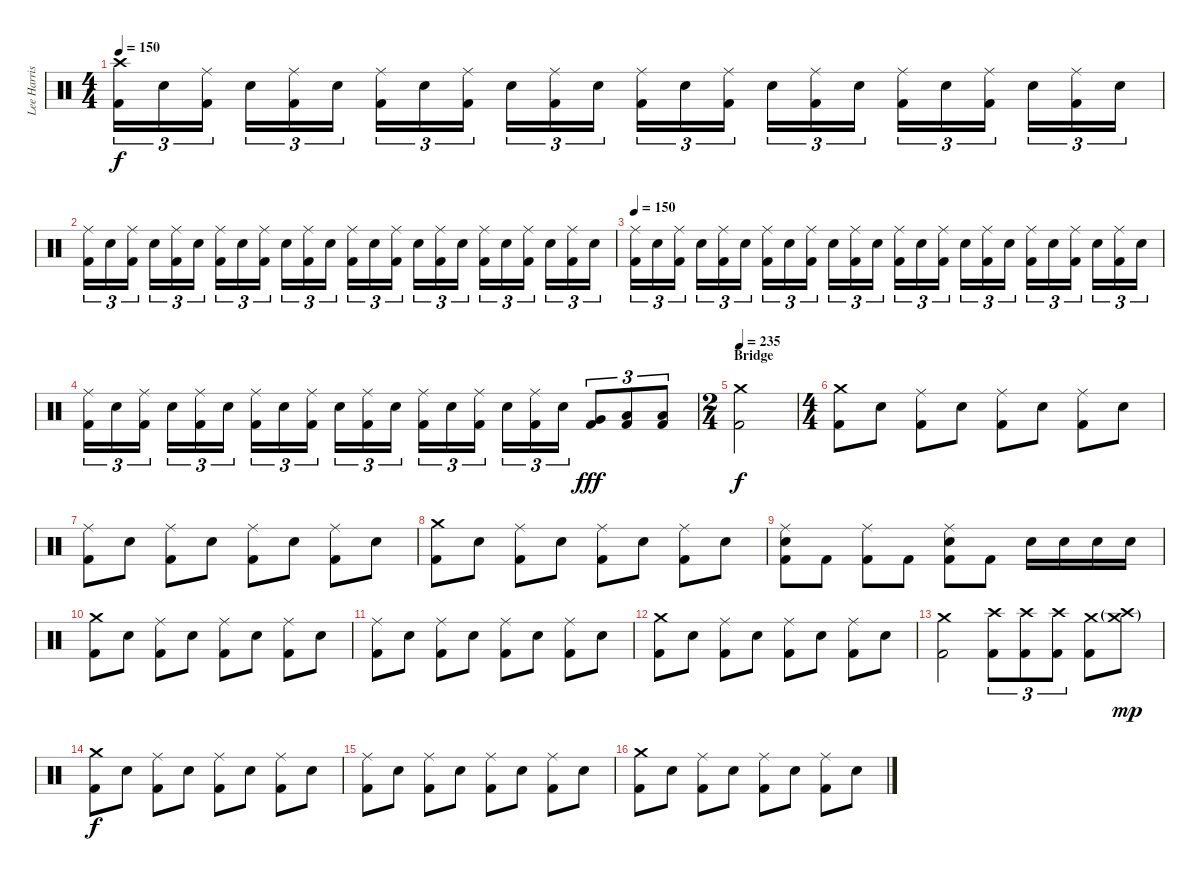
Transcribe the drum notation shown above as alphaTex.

\track ("Lee Harrison" "Lee Harris") {instrument percussion}
\staff {score}
\articulation defaults
\ts (4 4)
\tempo 150
\clef neutral
\ks c
("Crash high (hit)" "Kick (hit) 2").16{tu (3 2) dy f} "Electric Snare (hit)".16{tu (3 2)} ("Ride (middle)" "Kick (hit) 2").16{tu (3 2)} "Electric Snare (hit)".16{tu (3 2)} ("Ride (middle)" "Kick (hit) 2").16{tu (3 2)} "Electric Snare (hit)".16{tu (3 2)} ("Ride (middle)" "Kick (hit) 2").16{tu (3 2)} "Electric Snare (hit)".16{tu (3 2)} ("Ride (middle)" "Kick (hit) 2").16{tu (3 2)} "Electric Snare (hit)".16{tu (3 2)} ("Ride (middle)" "Kick (hit) 2").16{tu (3 2)} "Electric Snare (hit)".16{tu (3 2)} ("Ride (middle)" "Kick (hit) 2").16{tu (3 2)} "Electric Snare (hit)".16{tu (3 2)} ("Ride (middle)" "Kick (hit) 2").16{tu (3 2)} "Electric Snare (hit)".16{tu (3 2)} ("Ride (middle)" "Kick (hit) 2").16{tu (3 2)} "Electric Snare (hit)".16{tu (3 2)} ("Ride (middle)" "Kick (hit) 2").16{tu (3 2)} "Electric Snare (hit)".16{tu (3 2)} ("Ride (middle)" "Kick (hit) 2").16{tu (3 2)} "Electric Snare (hit)".16{tu (3 2)} ("Ride (middle)" "Kick (hit) 2").16{tu (3 2)} "Electric Snare (hit)".16{tu (3 2)} |
("Ride (middle)" "Kick (hit) 2").16{tu (3 2)} "Electric Snare (hit)".16{tu (3 2)} ("Ride (middle)" "Kick (hit) 2").16{tu (3 2)} "Electric Snare (hit)".16{tu (3 2)} ("Ride (middle)" "Kick (hit) 2").16{tu (3 2)} "Electric Snare (hit)".16{tu (3 2)} ("Ride (middle)" "Kick (hit) 2").16{tu (3 2)} "Electric Snare (hit)".16{tu (3 2)} ("Ride (middle)" "Kick (hit) 2").16{tu (3 2)} "Electric Snare (hit)".16{tu (3 2)} ("Ride (middle)" "Kick (hit) 2").16{tu (3 2)} "Electric Snare (hit)".16{tu (3 2)} ("Ride (middle)" "Kick (hit) 2").16{tu (3 2)} "Electric Snare (hit)".16{tu (3 2)} ("Ride (middle)" "Kick (hit) 2").16{tu (3 2)} "Electric Snare (hit)".16{tu (3 2)} ("Ride (middle)" "Kick (hit) 2").16{tu (3 2)} "Electric Snare (hit)".16{tu (3 2)} ("Ride (middle)" "Kick (hit) 2").16{tu (3 2)} "Electric Snare (hit)".16{tu (3 2)} ("Ride (middle)" "Kick (hit) 2").16{tu (3 2)} "Electric Snare (hit)".16{tu (3 2)} ("Ride (middle)" "Kick (hit) 2").16{tu (3 2)} "Electric Snare (hit)".16{tu (3 2)} |
\tempo 150
("Ride (middle)" "Kick (hit) 2").16{tu (3 2)} "Electric Snare (hit)".16{tu (3 2)} ("Ride (middle)" "Kick (hit) 2").16{tu (3 2)} "Electric Snare (hit)".16{tu (3 2)} ("Ride (middle)" "Kick (hit) 2").16{tu (3 2)} "Electric Snare (hit)".16{tu (3 2)} ("Ride (middle)" "Kick (hit) 2").16{tu (3 2)} "Electric Snare (hit)".16{tu (3 2)} ("Ride (middle)" "Kick (hit) 2").16{tu (3 2)} "Electric Snare (hit)".16{tu (3 2)} ("Ride (middle)" "Kick (hit) 2").16{tu (3 2)} "Electric Snare (hit)".16{tu (3 2)} ("Ride (middle)" "Kick (hit) 2").16{tu (3 2)} "Electric Snare (hit)".16{tu (3 2)} ("Ride (middle)" "Kick (hit) 2").16{tu (3 2)} "Electric Snare (hit)".16{tu (3 2)} ("Ride (middle)" "Kick (hit) 2").16{tu (3 2)} "Electric Snare (hit)".16{tu (3 2)} ("Ride (middle)" "Kick (hit) 2").16{tu (3 2)} "Electric Snare (hit)".16{tu (3 2)} ("Ride (middle)" "Kick (hit) 2").16{tu (3 2)} "Electric Snare (hit)".16{tu (3 2)} ("Ride (middle)" "Kick (hit) 2").16{tu (3 2)} "Electric Snare (hit)".16{tu (3 2)} |
("Ride (middle)" "Kick (hit) 2").16{tu (3 2)} "Electric Snare (hit)".16{tu (3 2)} ("Ride (middle)" "Kick (hit) 2").16{tu (3 2)} "Electric Snare (hit)".16{tu (3 2)} ("Ride (middle)" "Kick (hit) 2").16{tu (3 2)} "Electric Snare (hit)".16{tu (3 2)} ("Ride (middle)" "Kick (hit) 2").16{tu (3 2)} "Electric Snare (hit)".16{tu (3 2)} ("Ride (middle)" "Kick (hit) 2").16{tu (3 2)} "Electric Snare (hit)".16{tu (3 2)} ("Ride (middle)" "Kick (hit) 2").16{tu (3 2)} "Electric Snare (hit)".16{tu (3 2)} ("Ride (middle)" "Kick (hit) 2").16{tu (3 2)} "Electric Snare (hit)".16{tu (3 2)} ("Ride (middle)" "Kick (hit) 2").16{tu (3 2)} "Electric Snare (hit)".16{tu (3 2)} ("Ride (middle)" "Kick (hit) 2").16{tu (3 2)} "Electric Snare (hit)".16{tu (3 2)} ("Very Low Tom (hit)" "Kick (hit) 2").8{tu (3 2) dy fff} ("Low Floor Tom (hit)" "Kick (hit) 2").8{tu (3 2)} ("Low Floor Tom (hit)" "Kick (hit) 2").8{tu (3 2)} |
\ts (2 4)
\section ("" "Bridge")
\tempo 235
("Crash medium (hit)" "Kick (hit) 2").2{dy f} |
\ts (4 4)
("Crash medium (hit)" "Kick (hit) 2").8 "Electric Snare (hit)".8 ("Ride (middle)" "Kick (hit) 2").8 "Electric Snare (hit)".8 ("Ride (middle)" "Kick (hit) 2").8 "Electric Snare (hit)".8 ("Ride (middle)" "Kick (hit) 2").8 "Electric Snare (hit)".8 |
("Ride (middle)" "Kick (hit) 2").8 "Electric Snare (hit)".8 ("Ride (middle)" "Kick (hit) 2").8 "Electric Snare (hit)".8 ("Ride (middle)" "Kick (hit) 2").8 "Electric Snare (hit)".8 ("Ride (middle)" "Kick (hit) 2").8 "Electric Snare (hit)".8 |
("Crash medium (hit)" "Kick (hit) 2").8 "Electric Snare (hit)".8 ("Ride (middle)" "Kick (hit) 2").8 "Electric Snare (hit)".8 ("Ride (middle)" "Kick (hit) 2").8 "Electric Snare (hit)".8 ("Ride (middle)" "Kick (hit) 2").8 "Electric Snare (hit)".8 |
("Ride (middle)" "Electric Snare (hit)" "Kick (hit) 2").8 "Kick (hit) 2".8 ("Ride (middle)" "Kick (hit) 2").8 "Kick (hit) 2".8 ("Ride (middle)" "Electric Snare (hit)" "Kick (hit) 2").8 "Kick (hit) 2".8 "Electric Snare (hit)".16 "Electric Snare (hit)".16 "Electric Snare (hit)".16 "Electric Snare (hit)".16 |
("Crash medium (hit)" "Kick (hit) 2").8 "Electric Snare (hit)".8 ("Ride (middle)" "Kick (hit) 2").8 "Electric Snare (hit)".8 ("Ride (middle)" "Kick (hit) 2").8 "Electric Snare (hit)".8 ("Ride (middle)" "Kick (hit) 2").8 "Electric Snare (hit)".8 |
("Ride (middle)" "Kick (hit) 2").8 "Electric Snare (hit)".8 ("Ride (middle)" "Kick (hit) 2").8 "Electric Snare (hit)".8 ("Ride (middle)" "Kick (hit) 2").8 "Electric Snare (hit)".8 ("Ride (middle)" "Kick (hit) 2").8 "Electric Snare (hit)".8 |
("Crash medium (hit)" "Kick (hit) 2").8 "Electric Snare (hit)".8 ("Ride (middle)" "Kick (hit) 2").8 "Electric Snare (hit)".8 ("Ride (middle)" "Kick (hit) 2").8 "Electric Snare (hit)".8 ("Ride (middle)" "Kick (hit) 2").8 "Electric Snare (hit)".8 |
("Crash medium (hit)" "Kick (hit) 2").2 ("Crash high (hit)" "Kick (hit) 2").8{tu (3 2)} ("Crash high (hit)" "Kick (hit) 2").8{tu (3 2)} ("Crash high (hit)" "Kick (hit) 2").8{tu (3 2)} ("Crash medium (hit)" "Kick (hit) 2").8 ("Crash medium (hit)"{g} "Crash high (hit)"{g}).8{dy mp} |
("Crash medium (hit)" "Kick (hit) 2").8{dy f} "Electric Snare (hit)".8 ("Ride (middle)" "Kick (hit) 2").8 "Electric Snare (hit)".8 ("Ride (middle)" "Kick (hit) 2").8 "Electric Snare (hit)".8 ("Ride (middle)" "Kick (hit) 2").8 "Electric Snare (hit)".8 |
("Ride (middle)" "Kick (hit) 2").8 "Electric Snare (hit)".8 ("Ride (middle)" "Kick (hit) 2").8 "Electric Snare (hit)".8 ("Ride (middle)" "Kick (hit) 2").8 "Electric Snare (hit)".8 ("Ride (middle)" "Kick (hit) 2").8 "Electric Snare (hit)".8 |
("Crash medium (hit)" "Kick (hit) 2").8 "Electric Snare (hit)".8 ("Ride (middle)" "Kick (hit) 2").8 "Electric Snare (hit)".8 ("Ride (middle)" "Kick (hit) 2").8 "Electric Snare (hit)".8 ("Ride (middle)" "Kick (hit) 2").8 "Electric Snare (hit)".8
